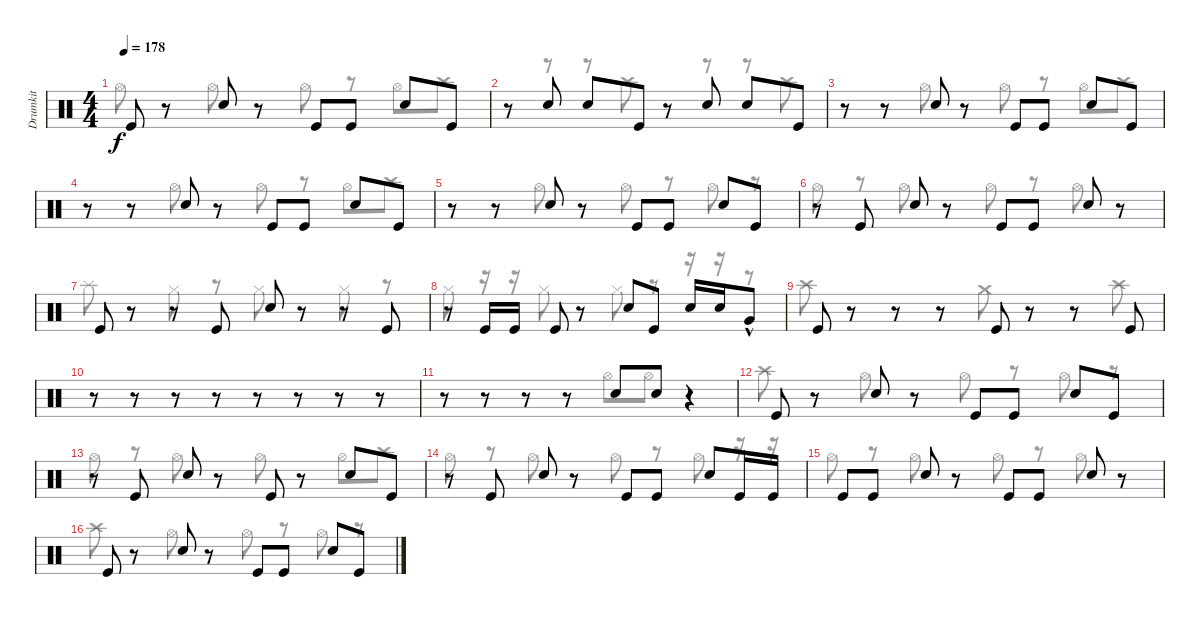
\track ("Drumkit" "Drumkit") {instrument percussion}
\staff {score}
\articulation defaults
\voice
\ts (4 4)
\tempo 178
\clef neutral
\ks c "Kick (hit)".8{dy f}
r.8 "Snare (hit) 2".8 r.8 "Kick (hit)".8 "Kick (hit)".8 "Snare (hit) 2".8 "Kick (hit)".8 |
r.8 "Snare (hit) 2".8 "Snare (hit) 2".8 "Kick (hit)".8 r.8 "Snare (hit) 2".8 "Snare (hit) 2".8 "Kick (hit)".8 |
r.8 r.8 "Snare (hit) 2".8 r.8 "Kick (hit)".8 "Kick (hit)".8 "Snare (hit) 2".8 "Kick (hit)".8 |
r.8 r.8 "Snare (hit) 2".8 r.8 "Kick (hit)".8 "Kick (hit)".8 "Snare (hit) 2".8 "Kick (hit)".8 |
r.8 r.8 "Snare (hit) 2".8 r.8 "Kick (hit)".8 "Kick (hit)".8 "Snare (hit) 2".8 "Kick (hit)".8 |
r.8 "Kick (hit)".8 "Snare (hit) 2".8 r.8 "Kick (hit)".8 "Kick (hit)".8 "Snare (hit) 2".8 r.8 |
"Kick (hit)".8 r.8 r.8 "Kick (hit)".8 "Snare (hit) 2".8 r.8 r.8 "Kick (hit)".8 |
r.8 "Kick (hit)".16 "Kick (hit)".16 "Kick (hit)".8 r.8 "Snare (hit) 2".8 "Kick (hit)".8 "Snare (hit) 2".16 "Snare (hit) 2".16 "Very Low Tom (hit)"{hac}.8 |
"Kick (hit)".8 r.8 r.8 r.8 "Kick (hit)".8 r.8 r.8 "Kick (hit)".8 |
r.8 r.8 r.8 r.8 r.8 r.8 r.8 r.8 |
r.8 r.8 r.8 r.8 "Snare (hit) 2".8 "Snare (hit) 2".8 r.4 |
\section ("" "")
"Kick (hit)".8 r.8 "Snare (hit) 2".8 r.8 "Kick (hit)".8 "Kick (hit)".8 "Snare (hit) 2".8 "Kick (hit)".8 |
r.8 "Kick (hit)".8 "Snare (hit) 2".8 r.8 "Kick (hit)".8 r.8 "Snare (hit) 2".8 "Kick (hit)".8 |
r.8 "Kick (hit)".8 "Snare (hit) 2".8 r.8 "Kick (hit)".8 "Kick (hit)".8 "Snare (hit) 2".8 "Kick (hit)".16 "Kick (hit)".16 |
"Kick (hit)".8 "Kick (hit)".8 "Snare (hit) 2".8 r.8 "Kick (hit)".8 "Kick (hit)".8 "Snare (hit) 2".8 r.8 |
"Kick (hit)".8 r.8 "Snare (hit) 2".8 r.8 "Kick (hit)".8 "Kick (hit)".8 "Snare (hit) 2".8 "Kick (hit)".8
\voice
\clef neutral
\ottava regular
\simile none
\ks c "Hi-Hat (open)".8{dy f}
r.8 "Hi-Hat (open)".8 r.8 "Hi-Hat (open)".8 r.8 "Hi-Hat (open)".8 "Crash high (hit)".8 |
r.8 r.8 r.8 "Crash high (hit)".8 r.8 r.8 r.8 "Crash high (hit)".8 |
r.8 r.8 "Hi-Hat (open)".8 r.8 "Hi-Hat (open)".8 r.8 "Hi-Hat (open)".8 "Crash high (hit)".8 |
r.8 r.8 "Hi-Hat (open)".8 r.8 "Hi-Hat (open)".8 r.8 "Hi-Hat (open)".8 "Crash high (hit)".8 |
r.8 r.8 "Hi-Hat (open)".8 r.8 "Hi-Hat (open)".8 r.8 "Hi-Hat (open)".8 r.8 |
"Hi-Hat (open)".8 r.8 "Hi-Hat (open)".8 r.8 "Hi-Hat (open)".8 r.8 "Hi-Hat (open)".8 r.8 |
"Splash (hit)".8 r.8 "Hi-Hat (closed)".8 r.8 "Hi-Hat (closed)".8 r.8 "Hi-Hat (closed)".8 r.8 |
"Hi-Hat (closed)".8 r.16 r.16 "Hi-Hat (closed)".8 r.8 "Hi-Hat (closed)".8 r.8 r.16 r.16 r.8 |
"Crash high (hit)".8 r.8 r.8 r.8 "Crash medium (hit)".8 r.8 r.8 "Crash high (hit)".8 |
r.8 r.8 r.8 r.8 r.8 r.8 r.8 r.8 |
r.8 r.8 r.8 r.8 "Hi-Hat (open)".8 "Hi-Hat (open)".8 r.4 |
"Crash high (hit)".8 r.8 "Hi-Hat (open)".8 r.8 "Hi-Hat (open)".8 r.8 "Hi-Hat (open)".8 r.8 |
"Hi-Hat (open)".8 r.8 "Hi-Hat (open)".8 r.8 "Hi-Hat (open)".8 r.8 "Hi-Hat (open)".8 "Crash high (hit)".8 |
"Hi-Hat (open)".8 r.8 "Hi-Hat (open)".8 r.8 "Hi-Hat (open)".8 r.8 "Hi-Hat (open)".8 r.16 r.16 |
"Hi-Hat (open)".8 r.8 "Hi-Hat (open)".8 r.8 "Hi-Hat (open)".8 r.8 "Hi-Hat (open)".8 r.8 |
"Crash high (hit)".8 r.8 "Hi-Hat (open)".8 r.8 "Hi-Hat (open)".8 r.8 "Hi-Hat (open)".8 r.8
